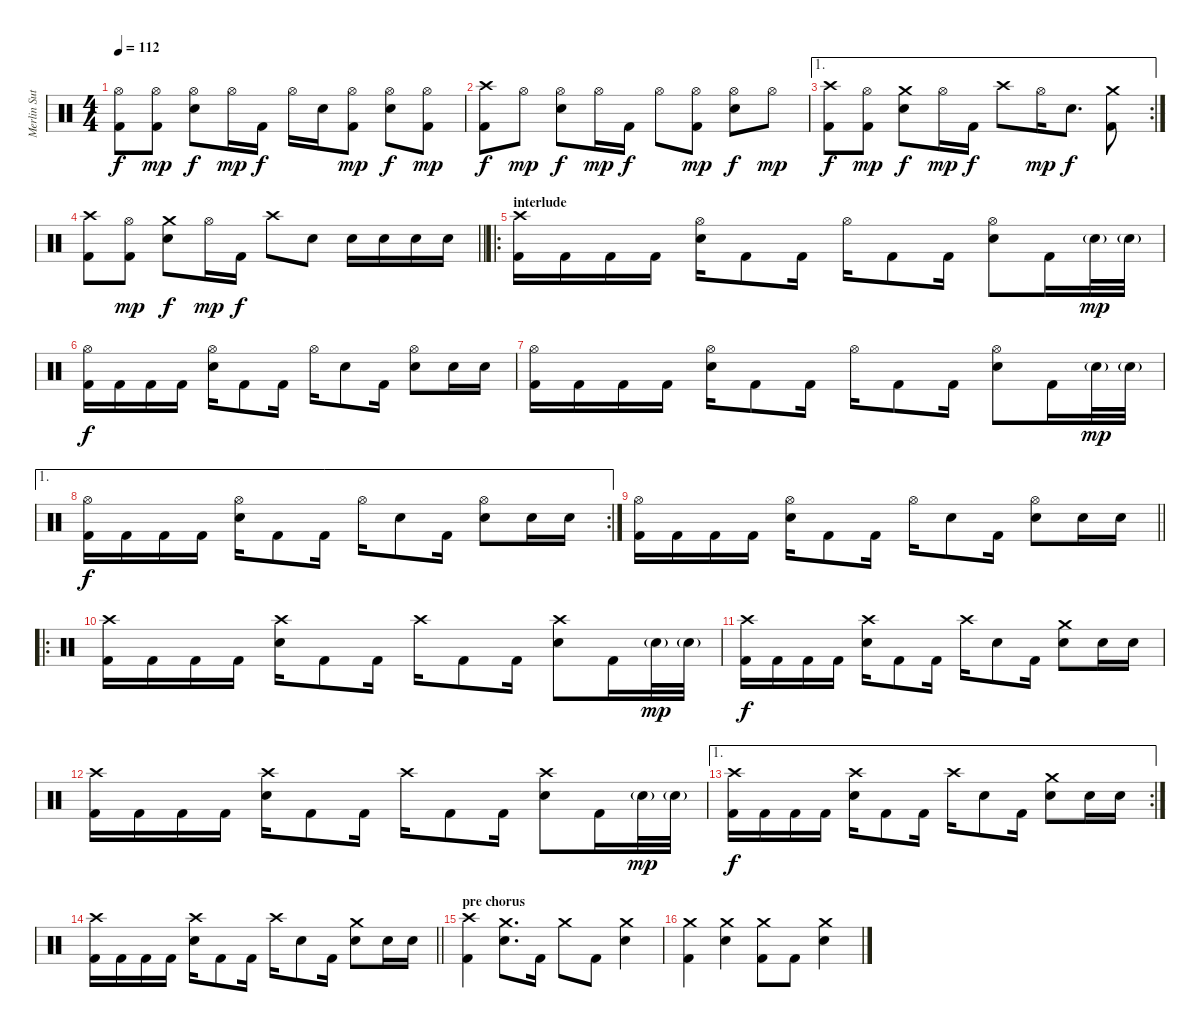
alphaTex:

\track ("Merlin Sutter" "Merlin Sut") {instrument percussion}
\staff {score}
\articulation defaults
\ts (4 4)
\tempo 112
\clef neutral
\ks c
("Hi-Hat (open)" "Kick (hit) 2").8{dy f} ("Hi-Hat (open)" "Kick (hit) 2").8{dy mp} ("Hi-Hat (open)" "Snare (hit) 2").8{dy f} "Hi-Hat (open)".16{dy mp} "Kick (hit) 2".16{dy f} "Hi-Hat (open)".16 "Snare (hit) 2".16 ("Hi-Hat (open)" "Kick (hit) 2").8{dy mp} ("Hi-Hat (open)" "Snare (hit) 2").8{dy f} ("Hi-Hat (open)" "Kick (hit) 2").8{dy mp} |
("Crash high (hit)" "Kick (hit) 2").8{dy f} "Hi-Hat (open)".8{dy mp} ("Hi-Hat (open)" "Snare (hit) 2").8{dy f} "Hi-Hat (open)".16{dy mp} "Kick (hit) 2".16{dy f} "Hi-Hat (open)".8 ("Hi-Hat (open)" "Kick (hit) 2").8{dy mp} ("Hi-Hat (open)" "Snare (hit) 2").8{dy f} "Hi-Hat (open)".8{dy mp} |
\ae 1
\rc 2
("Crash high (hit)" "Kick (hit) 2").8{dy f} ("Hi-Hat (open)" "Kick (hit) 2").8{dy mp} ("Crash medium (hit)" "Snare (hit) 2").8{dy f} "Hi-Hat (open)".16{dy mp} "Kick (hit) 2".16{dy f} "Crash high (hit)".8 "Hi-Hat (open)".16{dy mp} "Snare (hit) 2".8{d dy f} ("Crash medium (hit)" "Kick (hit) 2").8 |
\barLineRight lightlight
("Crash high (hit)" "Kick (hit) 2").8 ("Hi-Hat (open)" "Kick (hit) 2").8{dy mp} ("Crash medium (hit)" "Snare (hit) 2").8{dy f} "Hi-Hat (open)".16{dy mp} "Kick (hit) 2".16{dy f} "Crash high (hit)".8 "Snare (hit) 2".8 "Snare (hit) 2".16 "Snare (hit) 2".16 "Snare (hit) 2".16 "Snare (hit) 2".16 |
\ro
\section ("" "interlude")
("Crash high (hit)" "Kick (hit) 2").16 "Kick (hit) 2".16 "Kick (hit) 2".16 "Kick (hit) 2".16 ("Hi-Hat (open)" "Snare (hit) 2").16 "Kick (hit) 2".8 "Kick (hit) 2".16 "Hi-Hat (open)".16 "Kick (hit) 2".8 "Kick (hit) 2".16 ("Hi-Hat (open)" "Snare (hit) 2").8 "Kick (hit) 2".16 "Snare (hit) 2"{g}.32{dy mp} "Snare (hit) 2"{g}.32 |
("Hi-Hat (open)" "Kick (hit) 2").16{dy f} "Kick (hit) 2".16 "Kick (hit) 2".16 "Kick (hit) 2".16 ("Hi-Hat (open)" "Snare (hit) 2").16 "Kick (hit) 2".8 "Kick (hit) 2".16 "Hi-Hat (open)".16 "Snare (hit) 2".8 "Kick (hit) 2".16 ("Hi-Hat (open)" "Snare (hit) 2").8 "Snare (hit) 2".16 "Snare (hit) 2".16 |
("Hi-Hat (open)" "Kick (hit) 2").16 "Kick (hit) 2".16 "Kick (hit) 2".16 "Kick (hit) 2".16 ("Hi-Hat (open)" "Snare (hit) 2").16 "Kick (hit) 2".8 "Kick (hit) 2".16 "Hi-Hat (open)".16 "Kick (hit) 2".8 "Kick (hit) 2".16 ("Hi-Hat (open)" "Snare (hit) 2").8 "Kick (hit) 2".16 "Snare (hit) 2"{g}.32{dy mp} "Snare (hit) 2"{g}.32 |
\ae 1
\rc 2
("Hi-Hat (open)" "Kick (hit) 2").16{dy f} "Kick (hit) 2".16 "Kick (hit) 2".16 "Kick (hit) 2".16 ("Hi-Hat (open)" "Snare (hit) 2").16 "Kick (hit) 2".8 "Kick (hit) 2".16 "Hi-Hat (open)".16 "Snare (hit) 2".8 "Kick (hit) 2".16 ("Hi-Hat (open)" "Snare (hit) 2").8 "Snare (hit) 2".16 "Snare (hit) 2".16 |
\barLineRight lightlight
("Hi-Hat (open)" "Kick (hit) 2").16 "Kick (hit) 2".16 "Kick (hit) 2".16 "Kick (hit) 2".16 ("Hi-Hat (open)" "Snare (hit) 2").16 "Kick (hit) 2".8 "Kick (hit) 2".16 "Hi-Hat (open)".16 "Snare (hit) 2".8 "Kick (hit) 2".16 ("Hi-Hat (open)" "Snare (hit) 2").8 "Snare (hit) 2".16 "Snare (hit) 2".16 |
\ro
\section ("" "")
("Crash high (hit)" "Kick (hit) 2").16 "Kick (hit) 2".16 "Kick (hit) 2".16 "Kick (hit) 2".16 ("Crash high (hit)" "Snare (hit) 2").16 "Kick (hit) 2".8 "Kick (hit) 2".16 "Crash high (hit)".16 "Kick (hit) 2".8 "Kick (hit) 2".16 ("Crash high (hit)" "Snare (hit) 2").8 "Kick (hit) 2".16 "Snare (hit) 2"{g}.32{dy mp} "Snare (hit) 2"{g}.32 |
("Crash high (hit)" "Kick (hit) 2").16{dy f} "Kick (hit) 2".16 "Kick (hit) 2".16 "Kick (hit) 2".16 ("Crash high (hit)" "Snare (hit) 2").16 "Kick (hit) 2".8 "Kick (hit) 2".16 "Crash high (hit)".16 "Snare (hit) 2".8 "Kick (hit) 2".16 ("Crash medium (hit)" "Snare (hit) 2").8 "Snare (hit) 2".16 "Snare (hit) 2".16 |
("Crash high (hit)" "Kick (hit) 2").16 "Kick (hit) 2".16 "Kick (hit) 2".16 "Kick (hit) 2".16 ("Crash high (hit)" "Snare (hit) 2").16 "Kick (hit) 2".8 "Kick (hit) 2".16 "Crash high (hit)".16 "Kick (hit) 2".8 "Kick (hit) 2".16 ("Crash high (hit)" "Snare (hit) 2").8 "Kick (hit) 2".16 "Snare (hit) 2"{g}.32{dy mp} "Snare (hit) 2"{g}.32 |
\ae 1
\rc 2
("Crash high (hit)" "Kick (hit) 2").16{dy f} "Kick (hit) 2".16 "Kick (hit) 2".16 "Kick (hit) 2".16 ("Crash high (hit)" "Snare (hit) 2").16 "Kick (hit) 2".8 "Kick (hit) 2".16 "Crash high (hit)".16 "Snare (hit) 2".8 "Kick (hit) 2".16 ("Crash medium (hit)" "Snare (hit) 2").8 "Snare (hit) 2".16 "Snare (hit) 2".16 |
\barLineRight lightlight
("Crash high (hit)" "Kick (hit) 2").16 "Kick (hit) 2".16 "Kick (hit) 2".16 "Kick (hit) 2".16 ("Crash high (hit)" "Snare (hit) 2").16 "Kick (hit) 2".8 "Kick (hit) 2".16 "Crash high (hit)".16 "Snare (hit) 2".8 "Kick (hit) 2".16 ("Crash medium (hit)" "Snare (hit) 2").8 "Snare (hit) 2".16 "Snare (hit) 2".16 |
\section ("" "pre chorus")
("Crash high (hit)" "Kick (hit) 2").4 ("Crash medium (hit)" "Snare (hit) 2").8{d} "Kick (hit) 2".16 "Crash medium (hit)".8 "Kick (hit) 2".8 ("Crash medium (hit)" "Snare (hit) 2").4 |
("Crash medium (hit)" "Kick (hit) 2").4 ("Crash medium (hit)" "Snare (hit) 2").4 ("Crash medium (hit)" "Kick (hit) 2").8 "Kick (hit) 2".8 ("Crash medium (hit)" "Snare (hit) 2").4
